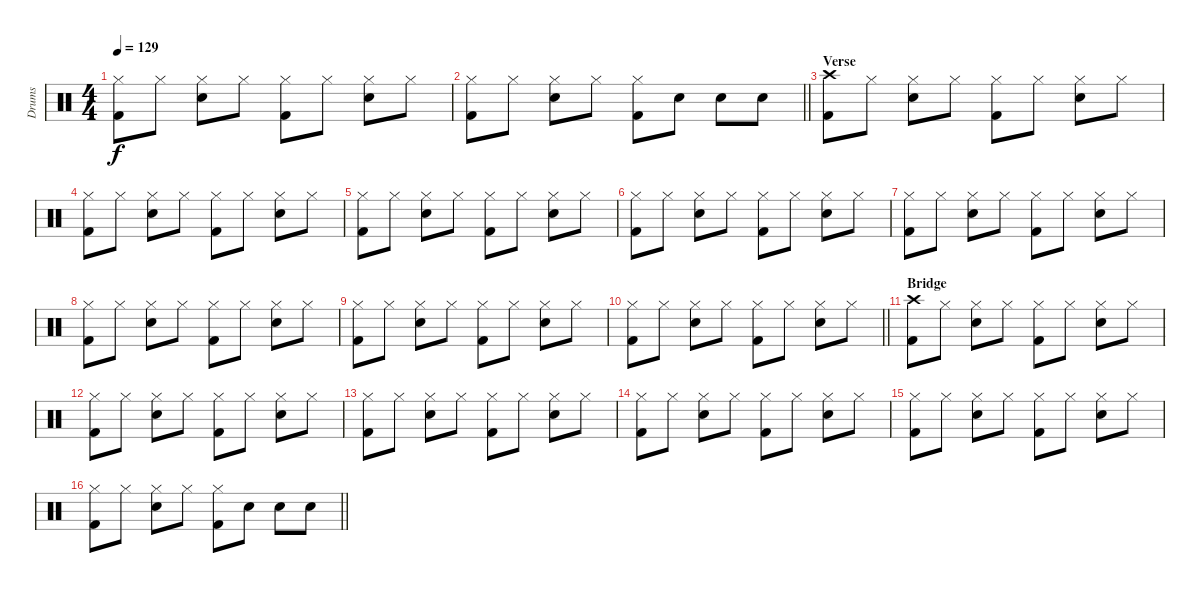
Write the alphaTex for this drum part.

\track ("Drums" "Drums") {instrument percussion}
\staff {score}
\articulation defaults
\ts (4 4)
\tempo 129
\clef neutral
\ks c
("Hi-Hat (closed)" "Kick (hit) 2").8{dy f} "Hi-Hat (closed)".8 ("Hi-Hat (closed)" "Snare (hit) 2").8 "Hi-Hat (closed)".8 ("Hi-Hat (closed)" "Kick (hit) 2").8 "Hi-Hat (closed)".8 ("Hi-Hat (closed)" "Snare (hit) 2").8 "Hi-Hat (closed)".8 |
\barLineRight lightlight
("Hi-Hat (closed)" "Kick (hit) 2").8 "Hi-Hat (closed)".8 ("Hi-Hat (closed)" "Snare (hit) 2").8 "Hi-Hat (closed)".8 ("Hi-Hat (closed)" "Kick (hit) 2").8 "Snare (hit) 2".8 "Snare (hit) 2".8 "Snare (hit) 2".8 |
\section ("" "Verse")
("Crash high (hit)" "Kick (hit) 2").8 "Hi-Hat (closed)".8 ("Hi-Hat (closed)" "Snare (hit) 2").8 "Hi-Hat (closed)".8 ("Hi-Hat (closed)" "Kick (hit) 2").8 "Hi-Hat (closed)".8 ("Hi-Hat (closed)" "Snare (hit) 2").8 "Hi-Hat (closed)".8 |
("Hi-Hat (closed)" "Kick (hit) 2").8 "Hi-Hat (closed)".8 ("Hi-Hat (closed)" "Snare (hit) 2").8 "Hi-Hat (closed)".8 ("Hi-Hat (closed)" "Kick (hit) 2").8 "Hi-Hat (closed)".8 ("Hi-Hat (closed)" "Snare (hit) 2").8 "Hi-Hat (closed)".8 |
("Hi-Hat (closed)" "Kick (hit) 2").8 "Hi-Hat (closed)".8 ("Hi-Hat (closed)" "Snare (hit) 2").8 "Hi-Hat (closed)".8 ("Hi-Hat (closed)" "Kick (hit) 2").8 "Hi-Hat (closed)".8 ("Hi-Hat (closed)" "Snare (hit) 2").8 "Hi-Hat (closed)".8 |
("Hi-Hat (closed)" "Kick (hit) 2").8 "Hi-Hat (closed)".8 ("Hi-Hat (closed)" "Snare (hit) 2").8 "Hi-Hat (closed)".8 ("Hi-Hat (closed)" "Kick (hit) 2").8 "Hi-Hat (closed)".8 ("Hi-Hat (closed)" "Snare (hit) 2").8 "Hi-Hat (closed)".8 |
("Hi-Hat (closed)" "Kick (hit) 2").8 "Hi-Hat (closed)".8 ("Hi-Hat (closed)" "Snare (hit) 2").8 "Hi-Hat (closed)".8 ("Hi-Hat (closed)" "Kick (hit) 2").8 "Hi-Hat (closed)".8 ("Hi-Hat (closed)" "Snare (hit) 2").8 "Hi-Hat (closed)".8 |
("Hi-Hat (closed)" "Kick (hit) 2").8 "Hi-Hat (closed)".8 ("Hi-Hat (closed)" "Snare (hit) 2").8 "Hi-Hat (closed)".8 ("Hi-Hat (closed)" "Kick (hit) 2").8 "Hi-Hat (closed)".8 ("Hi-Hat (closed)" "Snare (hit) 2").8 "Hi-Hat (closed)".8 |
("Hi-Hat (closed)" "Kick (hit) 2").8 "Hi-Hat (closed)".8 ("Hi-Hat (closed)" "Snare (hit) 2").8 "Hi-Hat (closed)".8 ("Hi-Hat (closed)" "Kick (hit) 2").8 "Hi-Hat (closed)".8 ("Hi-Hat (closed)" "Snare (hit) 2").8 "Hi-Hat (closed)".8 |
\barLineRight lightlight
("Hi-Hat (closed)" "Kick (hit) 2").8 "Hi-Hat (closed)".8 ("Hi-Hat (closed)" "Snare (hit) 2").8 "Hi-Hat (closed)".8 ("Hi-Hat (closed)" "Kick (hit) 2").8 "Hi-Hat (closed)".8 ("Hi-Hat (closed)" "Snare (hit) 2").8 "Hi-Hat (closed)".8 |
\section ("" "Bridge")
("Crash high (hit)" "Kick (hit) 2").8 "Hi-Hat (closed)".8 ("Hi-Hat (closed)" "Snare (hit) 2").8 "Hi-Hat (closed)".8 ("Hi-Hat (closed)" "Kick (hit) 2").8 "Hi-Hat (closed)".8 ("Hi-Hat (closed)" "Snare (hit) 2").8 "Hi-Hat (closed)".8 |
("Hi-Hat (closed)" "Kick (hit) 2").8 "Hi-Hat (closed)".8 ("Hi-Hat (closed)" "Snare (hit) 2").8 "Hi-Hat (closed)".8 ("Hi-Hat (closed)" "Kick (hit) 2").8 "Hi-Hat (closed)".8 ("Hi-Hat (closed)" "Snare (hit) 2").8 "Hi-Hat (closed)".8 |
("Hi-Hat (closed)" "Kick (hit) 2").8 "Hi-Hat (closed)".8 ("Hi-Hat (closed)" "Snare (hit) 2").8 "Hi-Hat (closed)".8 ("Hi-Hat (closed)" "Kick (hit) 2").8 "Hi-Hat (closed)".8 ("Hi-Hat (closed)" "Snare (hit) 2").8 "Hi-Hat (closed)".8 |
("Hi-Hat (closed)" "Kick (hit) 2").8 "Hi-Hat (closed)".8 ("Hi-Hat (closed)" "Snare (hit) 2").8 "Hi-Hat (closed)".8 ("Hi-Hat (closed)" "Kick (hit) 2").8 "Hi-Hat (closed)".8 ("Hi-Hat (closed)" "Snare (hit) 2").8 "Hi-Hat (closed)".8 |
("Hi-Hat (closed)" "Kick (hit) 2").8 "Hi-Hat (closed)".8 ("Hi-Hat (closed)" "Snare (hit) 2").8 "Hi-Hat (closed)".8 ("Hi-Hat (closed)" "Kick (hit) 2").8 "Hi-Hat (closed)".8 ("Hi-Hat (closed)" "Snare (hit) 2").8 "Hi-Hat (closed)".8 |
\barLineRight lightlight
("Hi-Hat (closed)" "Kick (hit) 2").8 "Hi-Hat (closed)".8 ("Hi-Hat (closed)" "Snare (hit) 2").8 "Hi-Hat (closed)".8 ("Hi-Hat (closed)" "Kick (hit) 2").8 "Snare (hit) 2".8 "Snare (hit) 2".8 "Snare (hit) 2".8
